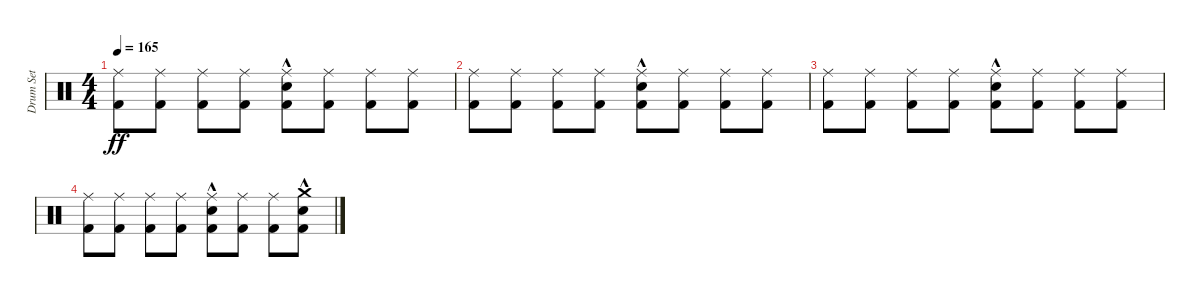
\track ("Drum Set" "Drum Set") {instrument percussion}
\staff {score}
\articulation defaults
\ts (4 4)
\tempo 165
\clef neutral
\ks c
("Ride (middle)" "Kick (hit) 2").8{dy ff} ("Ride (middle)" "Kick (hit) 2").8 ("Ride (middle)" "Kick (hit) 2").8 ("Ride (middle)" "Kick (hit) 2").8 ("Ride (middle)" "Snare (hit) 2"{hac} "Kick (hit) 2").8 ("Ride (middle)" "Kick (hit) 2").8 ("Ride (middle)" "Kick (hit) 2").8 ("Ride (middle)" "Kick (hit) 2").8 |
("Ride (middle)" "Kick (hit) 2").8 ("Ride (middle)" "Kick (hit) 2").8 ("Ride (middle)" "Kick (hit) 2").8 ("Ride (middle)" "Kick (hit) 2").8 ("Ride (middle)" "Snare (hit) 2"{hac} "Kick (hit) 2").8 ("Ride (middle)" "Kick (hit) 2").8 ("Ride (middle)" "Kick (hit) 2").8 ("Ride (middle)" "Kick (hit) 2").8 |
("Ride (middle)" "Kick (hit) 2").8 ("Ride (middle)" "Kick (hit) 2").8 ("Ride (middle)" "Kick (hit) 2").8 ("Ride (middle)" "Kick (hit) 2").8 ("Ride (middle)" "Snare (hit) 2"{hac} "Kick (hit) 2").8 ("Ride (middle)" "Kick (hit) 2").8 ("Ride (middle)" "Kick (hit) 2").8 ("Ride (middle)" "Kick (hit) 2").8 |
("Ride (middle)" "Kick (hit) 2").8 ("Ride (middle)" "Kick (hit) 2").8 ("Ride (middle)" "Kick (hit) 2").8 ("Ride (middle)" "Kick (hit) 2").8 ("Ride (middle)" "Snare (hit) 2"{hac} "Kick (hit) 2").8 ("Ride (middle)" "Kick (hit) 2").8 ("Ride (middle)" "Kick (hit) 2").8 ("Crash medium (hit)" "Snare (hit) 2"{hac} "Kick (hit) 2").8
